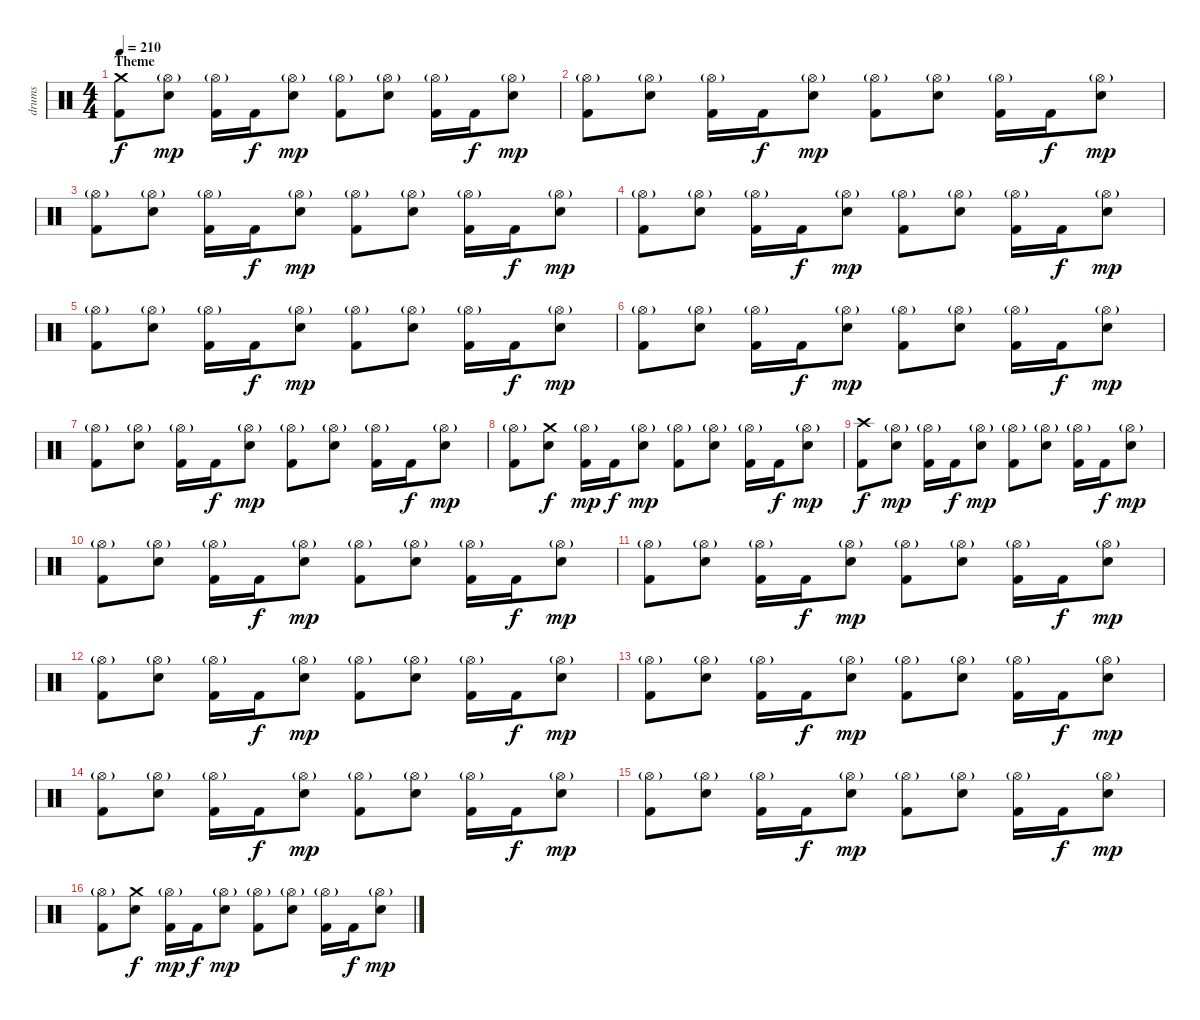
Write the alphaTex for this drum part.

\track ("drums" "drums") {instrument percussion}
\staff {score}
\articulation defaults
\ts (4 4)
\section ("" "Theme")
\tempo 210
\clef neutral
\ks c
("Crash medium (hit)" "Kick (hit) 2").8{dy f} ("Hi-Hat (open)"{g} "Electric Snare (hit)").8{dy mp} ("Hi-Hat (open)"{g} "Kick (hit) 2").16 "Kick (hit) 2".16{dy f} ("Hi-Hat (open)"{g} "Electric Snare (hit)").8{dy mp} ("Hi-Hat (open)"{g} "Kick (hit) 2").8 ("Hi-Hat (open)"{g} "Electric Snare (hit)").8 ("Hi-Hat (open)"{g} "Kick (hit) 2").16 "Kick (hit) 2".16{dy f} ("Hi-Hat (open)"{g} "Electric Snare (hit)").8{dy mp} |
("Hi-Hat (open)"{g} "Kick (hit) 2").8 ("Hi-Hat (open)"{g} "Electric Snare (hit)").8 ("Hi-Hat (open)"{g} "Kick (hit) 2").16 "Kick (hit) 2".16{dy f} ("Hi-Hat (open)"{g} "Electric Snare (hit)").8{dy mp} ("Hi-Hat (open)"{g} "Kick (hit) 2").8 ("Hi-Hat (open)"{g} "Electric Snare (hit)").8 ("Hi-Hat (open)"{g} "Kick (hit) 2").16 "Kick (hit) 2".16{dy f} ("Hi-Hat (open)"{g} "Electric Snare (hit)").8{dy mp} |
("Hi-Hat (open)"{g} "Kick (hit) 2").8 ("Hi-Hat (open)"{g} "Electric Snare (hit)").8 ("Hi-Hat (open)"{g} "Kick (hit) 2").16 "Kick (hit) 2".16{dy f} ("Hi-Hat (open)"{g} "Electric Snare (hit)").8{dy mp} ("Hi-Hat (open)"{g} "Kick (hit) 2").8 ("Hi-Hat (open)"{g} "Electric Snare (hit)").8 ("Hi-Hat (open)"{g} "Kick (hit) 2").16 "Kick (hit) 2".16{dy f} ("Hi-Hat (open)"{g} "Electric Snare (hit)").8{dy mp} |
("Hi-Hat (open)"{g} "Kick (hit) 2").8 ("Hi-Hat (open)"{g} "Electric Snare (hit)").8 ("Hi-Hat (open)"{g} "Kick (hit) 2").16 "Kick (hit) 2".16{dy f} ("Hi-Hat (open)"{g} "Electric Snare (hit)").8{dy mp} ("Hi-Hat (open)"{g} "Kick (hit) 2").8 ("Hi-Hat (open)"{g} "Electric Snare (hit)").8 ("Hi-Hat (open)"{g} "Kick (hit) 2").16 "Kick (hit) 2".16{dy f} ("Hi-Hat (open)"{g} "Electric Snare (hit)").8{dy mp} |
("Hi-Hat (open)"{g} "Kick (hit) 2").8 ("Hi-Hat (open)"{g} "Electric Snare (hit)").8 ("Hi-Hat (open)"{g} "Kick (hit) 2").16 "Kick (hit) 2".16{dy f} ("Hi-Hat (open)"{g} "Electric Snare (hit)").8{dy mp} ("Hi-Hat (open)"{g} "Kick (hit) 2").8 ("Hi-Hat (open)"{g} "Electric Snare (hit)").8 ("Hi-Hat (open)"{g} "Kick (hit) 2").16 "Kick (hit) 2".16{dy f} ("Hi-Hat (open)"{g} "Electric Snare (hit)").8{dy mp} |
("Hi-Hat (open)"{g} "Kick (hit) 2").8 ("Hi-Hat (open)"{g} "Electric Snare (hit)").8 ("Hi-Hat (open)"{g} "Kick (hit) 2").16 "Kick (hit) 2".16{dy f} ("Hi-Hat (open)"{g} "Electric Snare (hit)").8{dy mp} ("Hi-Hat (open)"{g} "Kick (hit) 2").8 ("Hi-Hat (open)"{g} "Electric Snare (hit)").8 ("Hi-Hat (open)"{g} "Kick (hit) 2").16 "Kick (hit) 2".16{dy f} ("Hi-Hat (open)"{g} "Electric Snare (hit)").8{dy mp} |
("Hi-Hat (open)"{g} "Kick (hit) 2").8 ("Hi-Hat (open)"{g} "Electric Snare (hit)").8 ("Hi-Hat (open)"{g} "Kick (hit) 2").16 "Kick (hit) 2".16{dy f} ("Hi-Hat (open)"{g} "Electric Snare (hit)").8{dy mp} ("Hi-Hat (open)"{g} "Kick (hit) 2").8 ("Hi-Hat (open)"{g} "Electric Snare (hit)").8 ("Hi-Hat (open)"{g} "Kick (hit) 2").16 "Kick (hit) 2".16{dy f} ("Hi-Hat (open)"{g} "Electric Snare (hit)").8{dy mp} |
("Hi-Hat (open)"{g} "Kick (hit) 2").8 ("Crash medium (hit)" "Electric Snare (hit)").8{dy f} ("Hi-Hat (open)"{g} "Kick (hit) 2").16{dy mp} "Kick (hit) 2".16{dy f} ("Hi-Hat (open)"{g} "Electric Snare (hit)").8{dy mp} ("Hi-Hat (open)"{g} "Kick (hit) 2").8 ("Hi-Hat (open)"{g} "Electric Snare (hit)").8 ("Hi-Hat (open)"{g} "Kick (hit) 2").16 "Kick (hit) 2".16{dy f} ("Hi-Hat (open)"{g} "Electric Snare (hit)").8{dy mp} |
("Crash high (hit)" "Kick (hit) 2").8{dy f} ("Hi-Hat (open)"{g} "Electric Snare (hit)").8{dy mp} ("Hi-Hat (open)"{g} "Kick (hit) 2").16 "Kick (hit) 2".16{dy f} ("Hi-Hat (open)"{g} "Electric Snare (hit)").8{dy mp} ("Hi-Hat (open)"{g} "Kick (hit) 2").8 ("Hi-Hat (open)"{g} "Electric Snare (hit)").8 ("Hi-Hat (open)"{g} "Kick (hit) 2").16 "Kick (hit) 2".16{dy f} ("Hi-Hat (open)"{g} "Electric Snare (hit)").8{dy mp} |
("Hi-Hat (open)"{g} "Kick (hit) 2").8 ("Hi-Hat (open)"{g} "Electric Snare (hit)").8 ("Hi-Hat (open)"{g} "Kick (hit) 2").16 "Kick (hit) 2".16{dy f} ("Hi-Hat (open)"{g} "Electric Snare (hit)").8{dy mp} ("Hi-Hat (open)"{g} "Kick (hit) 2").8 ("Hi-Hat (open)"{g} "Electric Snare (hit)").8 ("Hi-Hat (open)"{g} "Kick (hit) 2").16 "Kick (hit) 2".16{dy f} ("Hi-Hat (open)"{g} "Electric Snare (hit)").8{dy mp} |
("Hi-Hat (open)"{g} "Kick (hit) 2").8 ("Hi-Hat (open)"{g} "Electric Snare (hit)").8 ("Hi-Hat (open)"{g} "Kick (hit) 2").16 "Kick (hit) 2".16{dy f} ("Hi-Hat (open)"{g} "Electric Snare (hit)").8{dy mp} ("Hi-Hat (open)"{g} "Kick (hit) 2").8 ("Hi-Hat (open)"{g} "Electric Snare (hit)").8 ("Hi-Hat (open)"{g} "Kick (hit) 2").16 "Kick (hit) 2".16{dy f} ("Hi-Hat (open)"{g} "Electric Snare (hit)").8{dy mp} |
("Hi-Hat (open)"{g} "Kick (hit) 2").8 ("Hi-Hat (open)"{g} "Electric Snare (hit)").8 ("Hi-Hat (open)"{g} "Kick (hit) 2").16 "Kick (hit) 2".16{dy f} ("Hi-Hat (open)"{g} "Electric Snare (hit)").8{dy mp} ("Hi-Hat (open)"{g} "Kick (hit) 2").8 ("Hi-Hat (open)"{g} "Electric Snare (hit)").8 ("Hi-Hat (open)"{g} "Kick (hit) 2").16 "Kick (hit) 2".16{dy f} ("Hi-Hat (open)"{g} "Electric Snare (hit)").8{dy mp} |
("Hi-Hat (open)"{g} "Kick (hit) 2").8 ("Hi-Hat (open)"{g} "Electric Snare (hit)").8 ("Hi-Hat (open)"{g} "Kick (hit) 2").16 "Kick (hit) 2".16{dy f} ("Hi-Hat (open)"{g} "Electric Snare (hit)").8{dy mp} ("Hi-Hat (open)"{g} "Kick (hit) 2").8 ("Hi-Hat (open)"{g} "Electric Snare (hit)").8 ("Hi-Hat (open)"{g} "Kick (hit) 2").16 "Kick (hit) 2".16{dy f} ("Hi-Hat (open)"{g} "Electric Snare (hit)").8{dy mp} |
("Hi-Hat (open)"{g} "Kick (hit) 2").8 ("Hi-Hat (open)"{g} "Electric Snare (hit)").8 ("Hi-Hat (open)"{g} "Kick (hit) 2").16 "Kick (hit) 2".16{dy f} ("Hi-Hat (open)"{g} "Electric Snare (hit)").8{dy mp} ("Hi-Hat (open)"{g} "Kick (hit) 2").8 ("Hi-Hat (open)"{g} "Electric Snare (hit)").8 ("Hi-Hat (open)"{g} "Kick (hit) 2").16 "Kick (hit) 2".16{dy f} ("Hi-Hat (open)"{g} "Electric Snare (hit)").8{dy mp} |
("Hi-Hat (open)"{g} "Kick (hit) 2").8 ("Hi-Hat (open)"{g} "Electric Snare (hit)").8 ("Hi-Hat (open)"{g} "Kick (hit) 2").16 "Kick (hit) 2".16{dy f} ("Hi-Hat (open)"{g} "Electric Snare (hit)").8{dy mp} ("Hi-Hat (open)"{g} "Kick (hit) 2").8 ("Hi-Hat (open)"{g} "Electric Snare (hit)").8 ("Hi-Hat (open)"{g} "Kick (hit) 2").16 "Kick (hit) 2".16{dy f} ("Hi-Hat (open)"{g} "Electric Snare (hit)").8{dy mp} |
("Hi-Hat (open)"{g} "Kick (hit) 2").8 ("Crash medium (hit)" "Electric Snare (hit)").8{dy f} ("Hi-Hat (open)"{g} "Kick (hit) 2").16{dy mp} "Kick (hit) 2".16{dy f} ("Hi-Hat (open)"{g} "Electric Snare (hit)").8{dy mp} ("Hi-Hat (open)"{g} "Kick (hit) 2").8 ("Hi-Hat (open)"{g} "Electric Snare (hit)").8 ("Hi-Hat (open)"{g} "Kick (hit) 2").16 "Kick (hit) 2".16{dy f} ("Hi-Hat (open)"{g} "Electric Snare (hit)").8{dy mp}
